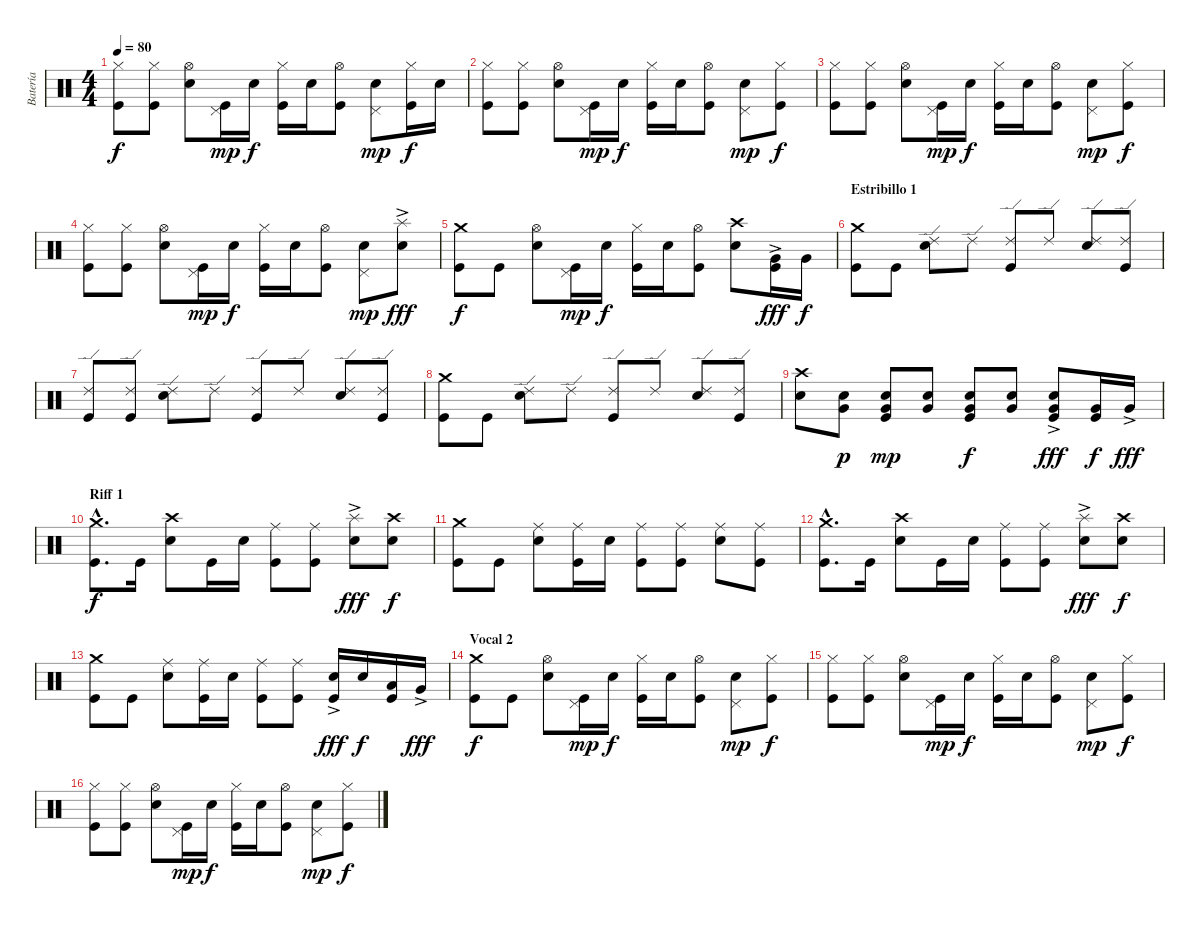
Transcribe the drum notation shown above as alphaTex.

\track ("Batería" "Batería") {instrument percussion}
\staff {score}
\articulation defaults
\ts (4 4)
\tempo 80
\clef neutral
\ks c
("Kick (hit)" "Hi-Hat (closed)").8{dy f} ("Kick (hit)" "Hi-Hat (closed)").8 ("Electric Snare (hit)" "Hi-Hat (open)").8 ("Kick (hit)" "Pedal Hi-Hat (hit)").16{dy mp} "Electric Snare (hit)".16{dy f} ("Kick (hit)" "Hi-Hat (closed)").16 "Electric Snare (hit)".16 ("Kick (hit)" "Hi-Hat (open)").8 ("Electric Snare (hit)" "Pedal Hi-Hat (hit)").8{dy mp} ("Kick (hit)" "Hi-Hat (closed)").16{dy f} "Electric Snare (hit)".16 |
("Kick (hit)" "Hi-Hat (closed)").8 ("Kick (hit)" "Hi-Hat (closed)").8 ("Electric Snare (hit)" "Hi-Hat (open)").8 ("Kick (hit)" "Pedal Hi-Hat (hit)").16{dy mp} "Electric Snare (hit)".16{dy f} ("Kick (hit)" "Hi-Hat (closed)").16 "Electric Snare (hit)".16 ("Kick (hit)" "Hi-Hat (open)").8 ("Electric Snare (hit)" "Pedal Hi-Hat (hit)").8{dy mp} ("Kick (hit)" "Hi-Hat (closed)").8{dy f} |
("Kick (hit)" "Hi-Hat (closed)").8 ("Kick (hit)" "Hi-Hat (closed)").8 ("Electric Snare (hit)" "Hi-Hat (open)").8 ("Kick (hit)" "Pedal Hi-Hat (hit)").16{dy mp} "Electric Snare (hit)".16{dy f} ("Kick (hit)" "Hi-Hat (closed)").16 "Electric Snare (hit)".16 ("Kick (hit)" "Hi-Hat (open)").8 ("Electric Snare (hit)" "Pedal Hi-Hat (hit)").8{dy mp} ("Kick (hit)" "Hi-Hat (closed)").8{dy f} |
("Kick (hit)" "Hi-Hat (closed)").8 ("Kick (hit)" "Hi-Hat (closed)").8 ("Electric Snare (hit)" "Hi-Hat (open)").8 ("Kick (hit)" "Pedal Hi-Hat (hit)").16{dy mp} "Electric Snare (hit)".16{dy f} ("Kick (hit)" "Hi-Hat (closed)").16 "Electric Snare (hit)".16 ("Kick (hit)" "Hi-Hat (open)").8 ("Electric Snare (hit)" "Pedal Hi-Hat (hit)").8{dy mp} ("Electric Snare (hit)" "Splash (hit)"{ac}).8{dy fff} |
("Kick (hit)" "Crash medium (hit)").8{dy f} "Kick (hit)".8 ("Electric Snare (hit)" "Hi-Hat (open)").8 ("Kick (hit)" "Pedal Hi-Hat (hit)").16{dy mp} "Electric Snare (hit)".16{dy f} ("Kick (hit)" "Hi-Hat (closed)").16 "Electric Snare (hit)".16 ("Kick (hit)" "Hi-Hat (open)").8 ("Electric Snare (hit)" "Crash high (hit)").8 ("Kick (hit)" "Very Low Tom (hit)"{ac}).16{dy fff} "Very Low Tom (hit)".16{dy f} |
\section ("" "Estribillo 1")
("Kick (hit)" "Crash medium (hit)").8 "Kick (hit)".8 ("Electric Snare (hit)" "Ride (edge) 2").8 "Ride (edge) 2".8 ("Kick (hit)" "Ride (edge) 2").8 "Ride (edge) 2".8 ("Electric Snare (hit)" "Ride (edge) 2").8 ("Kick (hit)" "Ride (edge) 2").8 |
("Kick (hit)" "Ride (edge) 2").8 ("Kick (hit)" "Ride (edge) 2").8 ("Electric Snare (hit)" "Ride (edge) 2").8 "Ride (edge) 2".8 ("Kick (hit)" "Ride (edge) 2").8 "Ride (edge) 2".8 ("Electric Snare (hit)" "Ride (edge) 2").8 ("Kick (hit)" "Ride (edge) 2").8 |
("Kick (hit)" "Crash medium (hit)").8 "Kick (hit)".8 ("Electric Snare (hit)" "Ride (edge) 2").8 "Ride (edge) 2".8 ("Kick (hit)" "Ride (edge) 2").8 "Ride (edge) 2".8 ("Electric Snare (hit)" "Ride (edge) 2").8 ("Kick (hit)" "Ride (edge) 2").8 |
("Electric Snare (hit)" "Crash high (hit)").8 ("Electric Snare (hit)" "Very Low Tom (hit)").8{dy p} ("Kick (hit)" "Electric Snare (hit)" "Very Low Tom (hit)").8{dy mp} ("Electric Snare (hit)" "Very Low Tom (hit)").8 ("Kick (hit)" "Electric Snare (hit)" "Very Low Tom (hit)").8{dy f} ("Electric Snare (hit)" "Very Low Tom (hit)").8 ("Kick (hit)" "Electric Snare (hit)"{ac} "Very Low Tom (hit)"{ac}).8{dy fff} ("Kick (hit)" "Very Low Tom (hit)").16{dy f} "Very Low Tom (hit)"{ac}.16{dy fff} |
\section ("" "Riff 1")
("Kick (hit)"{hac} "Crash medium (hit)"{hac}).8{d dy f} "Kick (hit)".16 ("Electric Snare (hit)" "Crash high (hit)").8 "Kick (hit)".16 "Electric Snare (hit)".16 ("Kick (hit)" "Ride (middle)").8 ("Kick (hit)" "Ride (middle)").8 ("Electric Snare (hit)" "Splash (hit)"{ac}).8{dy fff} ("Electric Snare (hit)" "Crash high (hit)").8{dy f} |
("Kick (hit)" "Crash medium (hit)").8 "Kick (hit)".8 ("Electric Snare (hit)" "Ride (middle)").8 ("Kick (hit)" "Ride (middle)").16 "Electric Snare (hit)".16 ("Kick (hit)" "Ride (middle)").8 ("Kick (hit)" "Ride (middle)").8 ("Electric Snare (hit)" "Ride (middle)").8 ("Kick (hit)" "Ride (middle)").8 |
("Kick (hit)"{hac} "Crash medium (hit)"{hac}).8{d} "Kick (hit)".16 ("Electric Snare (hit)" "Crash high (hit)").8 "Kick (hit)".16 "Electric Snare (hit)".16 ("Kick (hit)" "Ride (middle)").8 ("Kick (hit)" "Ride (middle)").8 ("Electric Snare (hit)" "Splash (hit)"{ac}).8{dy fff} ("Electric Snare (hit)" "Crash high (hit)").8{dy f} |
("Kick (hit)" "Crash medium (hit)").8 "Kick (hit)".8 ("Electric Snare (hit)" "Ride (middle)").8 ("Kick (hit)" "Ride (middle)").16 "Electric Snare (hit)".16 ("Kick (hit)" "Ride (middle)").8 ("Kick (hit)" "Ride (middle)").8 ("Kick (hit)" "Electric Snare (hit)"{ac}).16{dy fff} "Electric Snare (hit)".16{dy f} ("Kick (hit)" "Low Tom (hit)").16 "Very Low Tom (hit)"{ac}.16{dy fff} |
\section ("" "Vocal 2")
("Kick (hit)" "Crash medium (hit)").8{dy f} "Kick (hit)".8 ("Electric Snare (hit)" "Hi-Hat (open)").8 ("Kick (hit)" "Pedal Hi-Hat (hit)").16{dy mp} "Electric Snare (hit)".16{dy f} ("Kick (hit)" "Hi-Hat (closed)").16 "Electric Snare (hit)".16 ("Kick (hit)" "Hi-Hat (open)").8 ("Electric Snare (hit)" "Pedal Hi-Hat (hit)").8{dy mp} ("Kick (hit)" "Hi-Hat (closed)").8{dy f} |
("Kick (hit)" "Hi-Hat (closed)").8 ("Kick (hit)" "Hi-Hat (closed)").8 ("Electric Snare (hit)" "Hi-Hat (open)").8 ("Kick (hit)" "Pedal Hi-Hat (hit)").16{dy mp} "Electric Snare (hit)".16{dy f} ("Kick (hit)" "Hi-Hat (closed)").16 "Electric Snare (hit)".16 ("Kick (hit)" "Hi-Hat (open)").8 ("Electric Snare (hit)" "Pedal Hi-Hat (hit)").8{dy mp} ("Kick (hit)" "Hi-Hat (closed)").8{dy f} |
("Kick (hit)" "Hi-Hat (closed)").8 ("Kick (hit)" "Hi-Hat (closed)").8 ("Electric Snare (hit)" "Hi-Hat (open)").8 ("Kick (hit)" "Pedal Hi-Hat (hit)").16{dy mp} "Electric Snare (hit)".16{dy f} ("Kick (hit)" "Hi-Hat (closed)").16 "Electric Snare (hit)".16 ("Kick (hit)" "Hi-Hat (open)").8 ("Electric Snare (hit)" "Pedal Hi-Hat (hit)").8{dy mp} ("Kick (hit)" "Hi-Hat (closed)").8{dy f}
